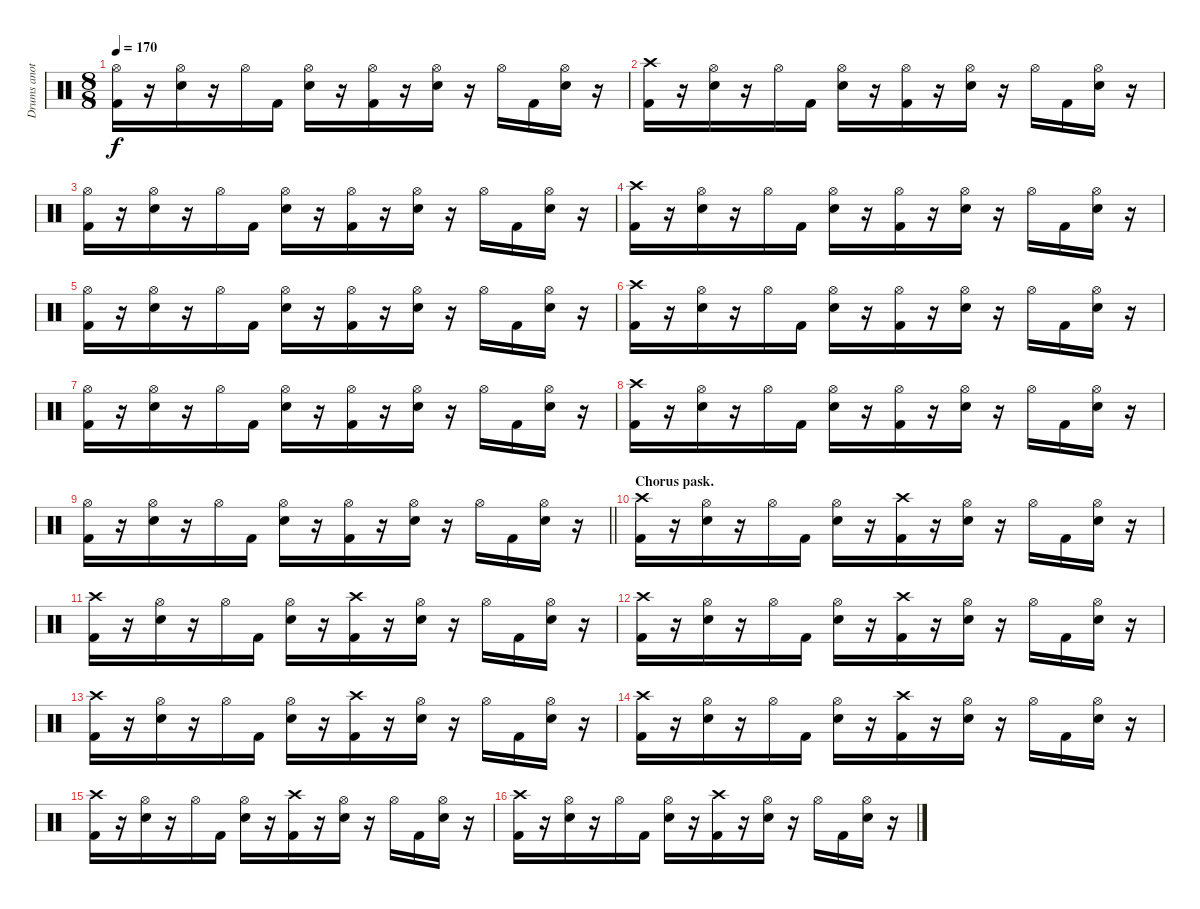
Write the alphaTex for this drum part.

\track ("Drums another version" "Drums anot") {mute instrument percussion}
\staff {score}
\articulation defaults
\ts (8 8)
\tempo 170
\clef neutral
\ks c
("Hi-Hat (open)" "Kick (hit) 2").16{dy f} r.16 ("Hi-Hat (open)" "Snare (hit) 2").16 r.16 "Hi-Hat (open)".16 "Kick (hit) 2".16 ("Hi-Hat (open)" "Snare (hit) 2").16 r.16 ("Hi-Hat (open)" "Kick (hit) 2").16 r.16 ("Hi-Hat (open)" "Snare (hit) 2").16 r.16 "Hi-Hat (open)".16 "Kick (hit) 2".16 ("Hi-Hat (open)" "Snare (hit) 2").16 r.16 |
("Crash high (hit)" "Kick (hit) 2").16 r.16 ("Hi-Hat (open)" "Snare (hit) 2").16 r.16 "Hi-Hat (open)".16 "Kick (hit) 2".16 ("Hi-Hat (open)" "Snare (hit) 2").16 r.16 ("Hi-Hat (open)" "Kick (hit) 2").16 r.16 ("Hi-Hat (open)" "Snare (hit) 2").16 r.16 "Hi-Hat (open)".16 "Kick (hit) 2".16 ("Hi-Hat (open)" "Snare (hit) 2").16 r.16 |
("Hi-Hat (open)" "Kick (hit) 2").16 r.16 ("Hi-Hat (open)" "Snare (hit) 2").16 r.16 "Hi-Hat (open)".16 "Kick (hit) 2".16 ("Hi-Hat (open)" "Snare (hit) 2").16 r.16 ("Hi-Hat (open)" "Kick (hit) 2").16 r.16 ("Hi-Hat (open)" "Snare (hit) 2").16 r.16 "Hi-Hat (open)".16 "Kick (hit) 2".16 ("Hi-Hat (open)" "Snare (hit) 2").16 r.16 |
("Crash high (hit)" "Kick (hit) 2").16 r.16 ("Hi-Hat (open)" "Snare (hit) 2").16 r.16 "Hi-Hat (open)".16 "Kick (hit) 2".16 ("Hi-Hat (open)" "Snare (hit) 2").16 r.16 ("Hi-Hat (open)" "Kick (hit) 2").16 r.16 ("Hi-Hat (open)" "Snare (hit) 2").16 r.16 "Hi-Hat (open)".16 "Kick (hit) 2".16 ("Hi-Hat (open)" "Snare (hit) 2").16 r.16 |
("Hi-Hat (open)" "Kick (hit) 2").16 r.16 ("Hi-Hat (open)" "Snare (hit) 2").16 r.16 "Hi-Hat (open)".16 "Kick (hit) 2".16 ("Hi-Hat (open)" "Snare (hit) 2").16 r.16 ("Hi-Hat (open)" "Kick (hit) 2").16 r.16 ("Hi-Hat (open)" "Snare (hit) 2").16 r.16 "Hi-Hat (open)".16 "Kick (hit) 2".16 ("Hi-Hat (open)" "Snare (hit) 2").16 r.16 |
("Crash high (hit)" "Kick (hit) 2").16 r.16 ("Hi-Hat (open)" "Snare (hit) 2").16 r.16 "Hi-Hat (open)".16 "Kick (hit) 2".16 ("Hi-Hat (open)" "Snare (hit) 2").16 r.16 ("Hi-Hat (open)" "Kick (hit) 2").16 r.16 ("Hi-Hat (open)" "Snare (hit) 2").16 r.16 "Hi-Hat (open)".16 "Kick (hit) 2".16 ("Hi-Hat (open)" "Snare (hit) 2").16 r.16 |
("Hi-Hat (open)" "Kick (hit) 2").16 r.16 ("Hi-Hat (open)" "Snare (hit) 2").16 r.16 "Hi-Hat (open)".16 "Kick (hit) 2".16 ("Hi-Hat (open)" "Snare (hit) 2").16 r.16 ("Hi-Hat (open)" "Kick (hit) 2").16 r.16 ("Hi-Hat (open)" "Snare (hit) 2").16 r.16 "Hi-Hat (open)".16 "Kick (hit) 2".16 ("Hi-Hat (open)" "Snare (hit) 2").16 r.16 |
("Crash high (hit)" "Kick (hit) 2").16 r.16 ("Hi-Hat (open)" "Snare (hit) 2").16 r.16 "Hi-Hat (open)".16 "Kick (hit) 2".16 ("Hi-Hat (open)" "Snare (hit) 2").16 r.16 ("Hi-Hat (open)" "Kick (hit) 2").16 r.16 ("Hi-Hat (open)" "Snare (hit) 2").16 r.16 "Hi-Hat (open)".16 "Kick (hit) 2".16 ("Hi-Hat (open)" "Snare (hit) 2").16 r.16 |
\barLineRight lightlight
("Hi-Hat (open)" "Kick (hit) 2").16 r.16 ("Hi-Hat (open)" "Snare (hit) 2").16 r.16 "Hi-Hat (open)".16 "Kick (hit) 2".16 ("Hi-Hat (open)" "Snare (hit) 2").16 r.16 ("Hi-Hat (open)" "Kick (hit) 2").16 r.16 ("Hi-Hat (open)" "Snare (hit) 2").16 r.16 "Hi-Hat (open)".16 "Kick (hit) 2".16 ("Hi-Hat (open)" "Snare (hit) 2").16 r.16 |
\section ("" "Chorus pask.")
("Crash high (hit)" "Kick (hit) 2").16 r.16 ("Hi-Hat (open)" "Snare (hit) 2").16 r.16 "Hi-Hat (open)".16 "Kick (hit) 2".16 ("Hi-Hat (open)" "Snare (hit) 2").16 r.16 ("Crash high (hit)" "Kick (hit) 2").16 r.16 ("Hi-Hat (open)" "Snare (hit) 2").16 r.16 "Hi-Hat (open)".16 "Kick (hit) 2".16 ("Hi-Hat (open)" "Snare (hit) 2").16 r.16 |
("Crash high (hit)" "Kick (hit) 2").16 r.16 ("Hi-Hat (open)" "Snare (hit) 2").16 r.16 "Hi-Hat (open)".16 "Kick (hit) 2".16 ("Hi-Hat (open)" "Snare (hit) 2").16 r.16 ("Crash high (hit)" "Kick (hit) 2").16 r.16 ("Hi-Hat (open)" "Snare (hit) 2").16 r.16 "Hi-Hat (open)".16 "Kick (hit) 2".16 ("Hi-Hat (open)" "Snare (hit) 2").16 r.16 |
("Crash high (hit)" "Kick (hit) 2").16 r.16 ("Hi-Hat (open)" "Snare (hit) 2").16 r.16 "Hi-Hat (open)".16 "Kick (hit) 2".16 ("Hi-Hat (open)" "Snare (hit) 2").16 r.16 ("Crash high (hit)" "Kick (hit) 2").16 r.16 ("Hi-Hat (open)" "Snare (hit) 2").16 r.16 "Hi-Hat (open)".16 "Kick (hit) 2".16 ("Hi-Hat (open)" "Snare (hit) 2").16 r.16 |
("Crash high (hit)" "Kick (hit) 2").16 r.16 ("Hi-Hat (open)" "Snare (hit) 2").16 r.16 "Hi-Hat (open)".16 "Kick (hit) 2".16 ("Hi-Hat (open)" "Snare (hit) 2").16 r.16 ("Crash high (hit)" "Kick (hit) 2").16 r.16 ("Hi-Hat (open)" "Snare (hit) 2").16 r.16 "Hi-Hat (open)".16 "Kick (hit) 2".16 ("Hi-Hat (open)" "Snare (hit) 2").16 r.16 |
("Crash high (hit)" "Kick (hit) 2").16 r.16 ("Hi-Hat (open)" "Snare (hit) 2").16 r.16 "Hi-Hat (open)".16 "Kick (hit) 2".16 ("Hi-Hat (open)" "Snare (hit) 2").16 r.16 ("Crash high (hit)" "Kick (hit) 2").16 r.16 ("Hi-Hat (open)" "Snare (hit) 2").16 r.16 "Hi-Hat (open)".16 "Kick (hit) 2".16 ("Hi-Hat (open)" "Snare (hit) 2").16 r.16 |
("Crash high (hit)" "Kick (hit) 2").16 r.16 ("Hi-Hat (open)" "Snare (hit) 2").16 r.16 "Hi-Hat (open)".16 "Kick (hit) 2".16 ("Hi-Hat (open)" "Snare (hit) 2").16 r.16 ("Crash high (hit)" "Kick (hit) 2").16 r.16 ("Hi-Hat (open)" "Snare (hit) 2").16 r.16 "Hi-Hat (open)".16 "Kick (hit) 2".16 ("Hi-Hat (open)" "Snare (hit) 2").16 r.16 |
("Crash high (hit)" "Kick (hit) 2").16 r.16 ("Hi-Hat (open)" "Snare (hit) 2").16 r.16 "Hi-Hat (open)".16 "Kick (hit) 2".16 ("Hi-Hat (open)" "Snare (hit) 2").16 r.16 ("Crash high (hit)" "Kick (hit) 2").16 r.16 ("Hi-Hat (open)" "Snare (hit) 2").16 r.16 "Hi-Hat (open)".16 "Kick (hit) 2".16 ("Hi-Hat (open)" "Snare (hit) 2").16 r.16
